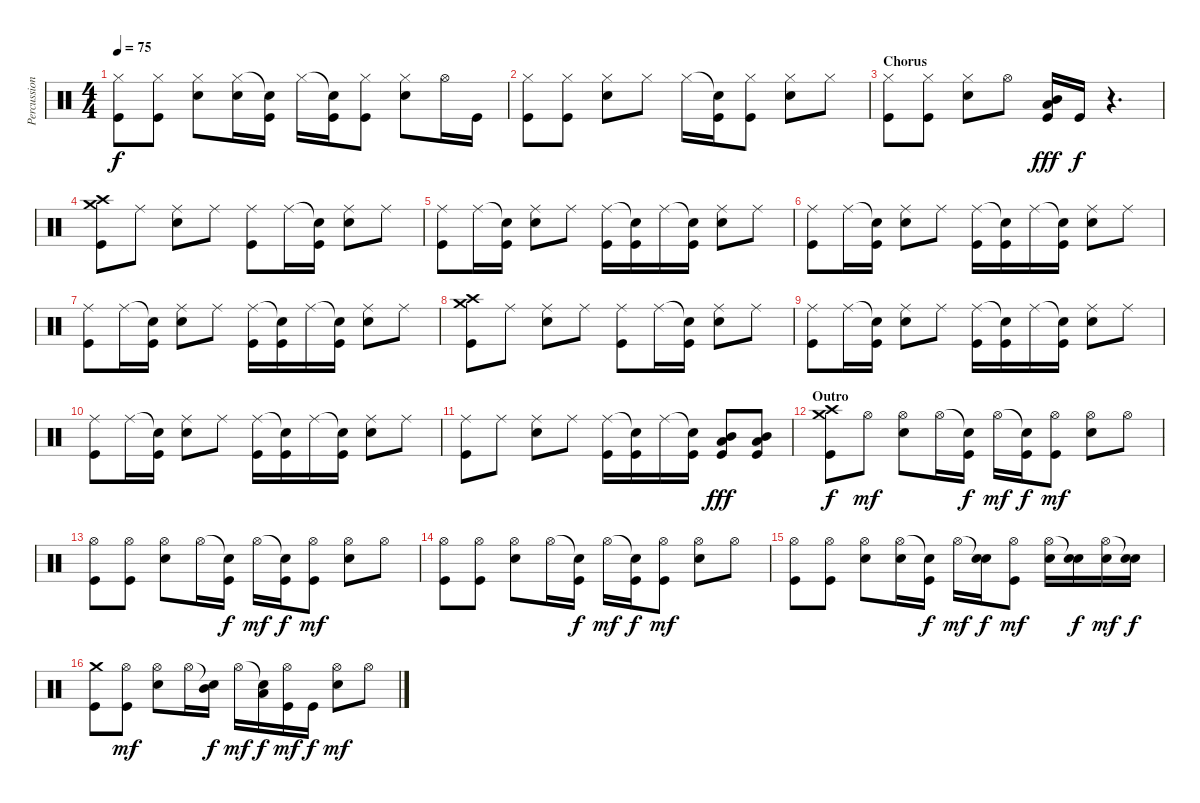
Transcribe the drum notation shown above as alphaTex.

\track ("Percussion" "Percussion") {instrument percussion}
\staff {score}
\articulation defaults
\ts (4 4)
\tempo 75
\clef neutral
\ks c
("Hi-Hat (closed)" "Kick (hit)").8{dy f} ("Hi-Hat (closed)" "Kick (hit)").8 ("Hi-Hat (closed)" "Snare (hit) 2").8 ("Hi-Hat (closed)" "Snare (hit) 2").16 ("Snare (hit)"{t} "Kick (hit)").16 "Hi-Hat (closed)".16 ("Snare (hit)"{t} "Kick (hit)").16 ("Hi-Hat (closed)" "Kick (hit)").8 ("Hi-Hat (closed)" "Snare (hit) 2").8 "Hi-Hat (open)".16 "Kick (hit)".16 |
("Hi-Hat (closed)" "Kick (hit)").8 ("Hi-Hat (closed)" "Kick (hit)").8 ("Hi-Hat (closed)" "Snare (hit) 2").8 "Hi-Hat (closed)".8 "Hi-Hat (closed)".16 ("Snare (hit)"{t} "Kick (hit)").16 ("Hi-Hat (closed)" "Kick (hit)").8 ("Hi-Hat (closed)" "Snare (hit) 2").8 "Hi-Hat (closed)".8 |
\section ("" "Chorus")
("Hi-Hat (closed)" "Kick (hit)").8 ("Hi-Hat (closed)" "Kick (hit)").8 ("Hi-Hat (closed)" "Snare (hit) 2").8 "Hi-Hat (open)".8 ("Low Tom (hit)" "Mid Tom (hit)" "Kick (hit)").16{dy fff} "Kick (hit)".16{dy f} r.4{d} |
("Crash high (hit)" "Crash medium (hit)" "Kick (hit)").8 "Ride (middle)".8 ("Ride (middle)" "Snare (hit) 2").8 "Ride (middle)".8 ("Ride (middle)" "Kick (hit)").8 "Ride (middle)".16 ("Snare (hit)"{t} "Kick (hit)").16 ("Ride (middle)" "Snare (hit) 2").8 "Ride (middle)".8 |
("Ride (middle)" "Kick (hit)").8 "Ride (middle)".16 ("Snare (hit)"{t} "Kick (hit)").16 ("Ride (middle)" "Snare (hit) 2").8 "Ride (middle)".8 ("Ride (middle)" "Kick (hit)").16 ("Snare (hit)"{t} "Kick (hit)").16 "Ride (middle)".16 ("Snare (hit)"{t} "Kick (hit)").16 ("Ride (middle)" "Snare (hit) 2").8 "Ride (middle)".8 |
("Ride (middle)" "Kick (hit)").8 "Ride (middle)".16 ("Snare (hit)"{t} "Kick (hit)").16 ("Ride (middle)" "Snare (hit) 2").8 "Ride (middle)".8 ("Ride (middle)" "Kick (hit)").16 ("Snare (hit)"{t} "Kick (hit)").16 "Ride (middle)".16 ("Snare (hit)"{t} "Kick (hit)").16 ("Ride (middle)" "Snare (hit) 2").8 "Ride (middle)".8 |
("Ride (middle)" "Kick (hit)").8 "Ride (middle)".16 ("Snare (hit)"{t} "Kick (hit)").16 ("Ride (middle)" "Snare (hit) 2").8 "Ride (middle)".8 ("Ride (middle)" "Kick (hit)").16 ("Snare (hit)"{t} "Kick (hit)").16 "Ride (middle)".16 ("Snare (hit)"{t} "Kick (hit)").16 ("Ride (middle)" "Snare (hit) 2").8 "Ride (middle)".8 |
("Crash high (hit)" "Crash medium (hit)" "Kick (hit)").8 "Ride (middle)".8 ("Ride (middle)" "Snare (hit) 2").8 "Ride (middle)".8 ("Ride (middle)" "Kick (hit)").8 "Ride (middle)".16 ("Snare (hit)"{t} "Kick (hit)").16 ("Ride (middle)" "Snare (hit) 2").8 "Ride (middle)".8 |
("Ride (middle)" "Kick (hit)").8 "Ride (middle)".16 ("Snare (hit)"{t} "Kick (hit)").16 ("Ride (middle)" "Snare (hit) 2").8 "Ride (middle)".8 ("Ride (middle)" "Kick (hit)").16 ("Snare (hit)"{t} "Kick (hit)").16 "Ride (middle)".16 ("Snare (hit)"{t} "Kick (hit)").16 ("Ride (middle)" "Snare (hit) 2").8 "Ride (middle)".8 |
("Ride (middle)" "Kick (hit)").8 "Ride (middle)".16 ("Snare (hit)"{t} "Kick (hit)").16 ("Ride (middle)" "Snare (hit) 2").8 "Ride (middle)".8 ("Ride (middle)" "Kick (hit)").16 ("Snare (hit)"{t} "Kick (hit)").16 "Ride (middle)".16 ("Snare (hit)"{t} "Kick (hit)").16 ("Ride (middle)" "Snare (hit) 2").8 "Ride (middle)".8 |
("Ride (middle)" "Kick (hit)").8 "Ride (middle)".8 ("Ride (middle)" "Snare (hit) 2").8 "Ride (middle)".8 ("Ride (middle)" "Kick (hit)").16 ("Snare (hit)"{t} "Kick (hit)").16 "Ride (middle)".16 ("Snare (hit)"{t} "Kick (hit)").16 ("Low Tom (hit)" "Mid Tom (hit)" "Kick (hit)").8{dy fff} ("Low Tom (hit)" "Mid Tom (hit)" "Kick (hit)").8 |
\section ("" "Outro")
("Crash high (hit)" "Crash medium (hit)" "Kick (hit)").8{dy f} "Hi-Hat (open)".8{dy mf} ("Hi-Hat (open)" "Snare (hit) 2").8 "Hi-Hat (open)".16 ("Snare (hit)"{t} "Kick (hit)").16{dy f} "Hi-Hat (open)".16{dy mf} ("Snare (hit)"{t} "Kick (hit)").16{dy f} ("Hi-Hat (open)" "Kick (hit)").8{dy mf} ("Hi-Hat (open)" "Snare (hit) 2").8 "Hi-Hat (open)".8 |
("Hi-Hat (open)" "Kick (hit)").8 ("Hi-Hat (open)" "Kick (hit)").8 ("Hi-Hat (open)" "Snare (hit) 2").8 "Hi-Hat (open)".16 ("Snare (hit)"{t} "Kick (hit)").16{dy f} "Hi-Hat (open)".16{dy mf} ("Snare (hit)"{t} "Kick (hit)").16{dy f} ("Hi-Hat (open)" "Kick (hit)").8{dy mf} ("Hi-Hat (open)" "Snare (hit) 2").8 "Hi-Hat (open)".8 |
("Hi-Hat (open)" "Kick (hit)").8 ("Hi-Hat (open)" "Kick (hit)").8 ("Hi-Hat (open)" "Snare (hit) 2").8 "Hi-Hat (open)".16 ("Snare (hit)"{t} "Kick (hit)").16{dy f} "Hi-Hat (open)".16{dy mf} ("Snare (hit)"{t} "Kick (hit)").16{dy f} ("Hi-Hat (open)" "Kick (hit)").8{dy mf} ("Hi-Hat (open)" "Snare (hit) 2").8 "Hi-Hat (open)".8 |
("Hi-Hat (open)" "Kick (hit)").8 ("Hi-Hat (open)" "Kick (hit)").8 ("Hi-Hat (open)" "Snare (hit) 2").8 ("Hi-Hat (open)" "Snare (hit) 2").16 ("Snare (hit)"{t} "Kick (hit)").16{dy f} "Hi-Hat (open)".16{dy mf} ("Snare (hit)"{t} "Snare (hit) 2").16{dy f} ("Hi-Hat (open)" "Kick (hit)").8{dy mf} ("Hi-Hat (open)" "Snare (hit) 2").16 ("Snare (hit)"{t} "Snare (hit) 2").16{dy f} ("Hi-Hat (open)" "Snare (hit) 2").16{dy mf} ("Snare (hit)"{t} "Snare (hit) 2").16{dy f} |
("Crash medium (hit)" "Kick (hit)").8 ("Hi-Hat (open)" "Kick (hit)").8{dy mf} ("Hi-Hat (open)" "Snare (hit) 2").8 "Hi-Hat (open)".16 ("Snare (hit)"{t} "Mid Tom (hit)").16{dy f} "Hi-Hat (open)".16{dy mf} ("Snare (hit)"{t} "Low Tom (hit)").16{dy f} ("Hi-Hat (open)" "Kick (hit)").16{dy mf} "Kick (hit)".16{dy f} ("Hi-Hat (open)" "Snare (hit) 2").8{dy mf} "Hi-Hat (open)".8
